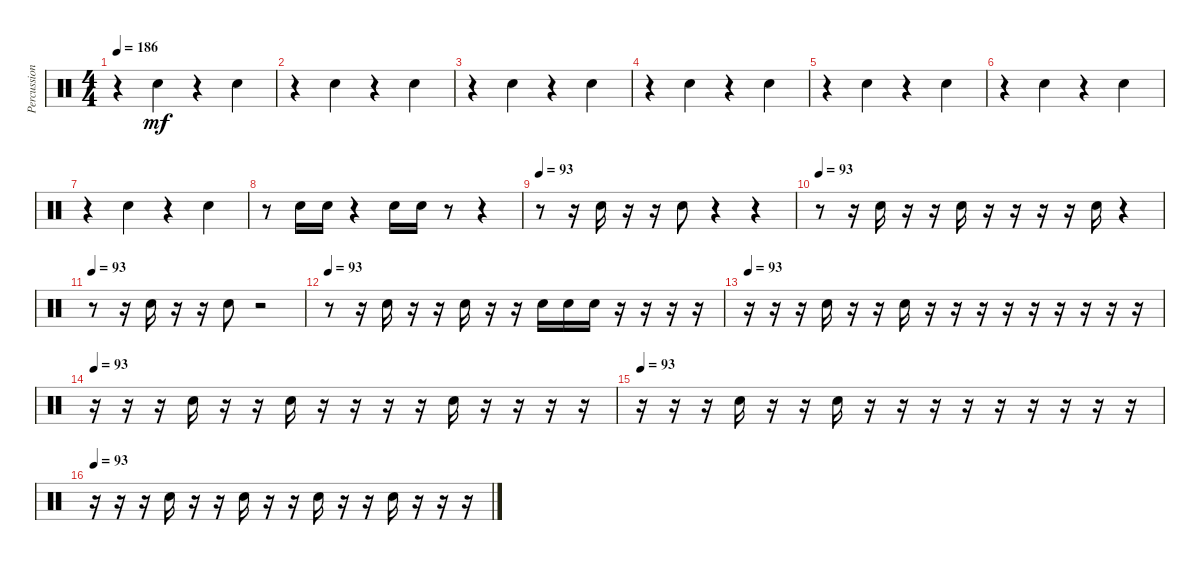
\track ("Percussion" "Percussion") {instrument percussion}
\staff {score}
\articulation defaults
\ts (4 4)
\tempo 186
\clef neutral
\ks c
r.4{dy mf} "Snare (hit) 2".4 r.4 "Snare (hit) 2".4 |
r.4 "Snare (hit) 2".4 r.4 "Snare (hit) 2".4 |
r.4 "Snare (hit) 2".4 r.4 "Snare (hit) 2".4 |
r.4 "Snare (hit) 2".4 r.4 "Snare (hit) 2".4 |
r.4 "Snare (hit) 2".4 r.4 "Snare (hit) 2".4 |
r.4 "Snare (hit) 2".4 r.4 "Snare (hit) 2".4 |
r.4 "Snare (hit) 2".4 r.4 "Snare (hit) 2".4 |
r.8 "Snare (hit) 2".16 "Snare (hit) 2".16 r.4 "Snare (hit) 2".16 "Snare (hit) 2".16 r.8 r.4 |
\tempo 93
r.8 r.16 "Snare (hit) 2".16 r.16 r.16 "Snare (hit) 2".8 r.4 r.4 |
\tempo 93
r.8 r.16 "Snare (hit) 2".16 r.16 r.16 "Snare (hit) 2".16 r.16 r.16 r.16 r.16 "Snare (hit) 2".16 r.4 |
\tempo 93
r.8 r.16 "Snare (hit) 2".16 r.16 r.16 "Snare (hit) 2".8 r.2 |
\tempo 93
r.8 r.16 "Snare (hit) 2".16 r.16 r.16 "Snare (hit) 2".16 r.16 r.16 "Snare (hit) 2".16 "Snare (hit) 2".16 "Snare (hit) 2".16 r.16 r.16 r.16 r.16 |
\tempo 93
r.16 r.16 r.16 "Snare (hit) 2".16 r.16 r.16 "Snare (hit) 2".16 r.16 r.16 r.16 r.16 r.16 r.16 r.16 r.16 r.16 |
\tempo 93
r.16 r.16 r.16 "Snare (hit) 2".16 r.16 r.16 "Snare (hit) 2".16 r.16 r.16 r.16 r.16 "Snare (hit) 2".16 r.16 r.16 r.16 r.16 |
\tempo 93
r.16 r.16 r.16 "Snare (hit) 2".16 r.16 r.16 "Snare (hit) 2".16 r.16 r.16 r.16 r.16 r.16 r.16 r.16 r.16 r.16 |
\tempo 93
r.16 r.16 r.16 "Snare (hit) 2".16 r.16 r.16 "Snare (hit) 2".16 r.16 r.16 "Snare (hit) 2".16 r.16 r.16 "Snare (hit) 2".16 r.16 r.16 r.16
